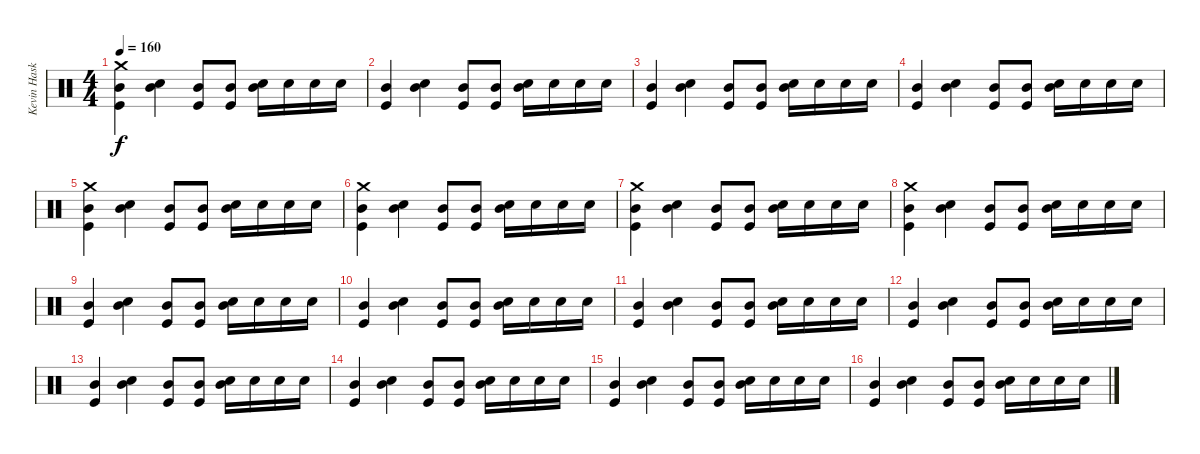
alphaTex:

\track ("Kevin Haskins" "Kevin Hask") {instrument percussion}
\staff {score}
\articulation defaults
\ts (4 4)
\tempo 160
\clef neutral
\ks c
("Crash medium (hit)" "Mid Tom (hit)" "Kick (hit)").4{dy f} ("Snare (hit) 2" "Mid Tom (hit)").4 ("Mid Tom (hit)" "Kick (hit)").8 ("Mid Tom (hit)" "Kick (hit)").8 ("Snare (hit) 2" "Mid Tom (hit)").16 "Snare (hit) 2".16 "Snare (hit) 2".16 "Snare (hit) 2".16 |
("Mid Tom (hit)" "Kick (hit)").4 ("Snare (hit) 2" "Mid Tom (hit)").4 ("Mid Tom (hit)" "Kick (hit)").8 ("Mid Tom (hit)" "Kick (hit)").8 ("Snare (hit) 2" "Mid Tom (hit)").16 "Snare (hit) 2".16 "Snare (hit) 2".16 "Snare (hit) 2".16 |
("Mid Tom (hit)" "Kick (hit)").4 ("Snare (hit) 2" "Mid Tom (hit)").4 ("Mid Tom (hit)" "Kick (hit)").8 ("Mid Tom (hit)" "Kick (hit)").8 ("Snare (hit) 2" "Mid Tom (hit)").16 "Snare (hit) 2".16 "Snare (hit) 2".16 "Snare (hit) 2".16 |
("Mid Tom (hit)" "Kick (hit)").4 ("Snare (hit) 2" "Mid Tom (hit)").4 ("Mid Tom (hit)" "Kick (hit)").8 ("Mid Tom (hit)" "Kick (hit)").8 ("Snare (hit) 2" "Mid Tom (hit)").16 "Snare (hit) 2".16 "Snare (hit) 2".16 "Snare (hit) 2".16 |
("Crash medium (hit)" "Mid Tom (hit)" "Kick (hit)").4 ("Snare (hit) 2" "Mid Tom (hit)").4 ("Mid Tom (hit)" "Kick (hit)").8 ("Mid Tom (hit)" "Kick (hit)").8 ("Snare (hit) 2" "Mid Tom (hit)").16 "Snare (hit) 2".16 "Snare (hit) 2".16 "Snare (hit) 2".16 |
("Crash medium (hit)" "Mid Tom (hit)" "Kick (hit)").4 ("Snare (hit) 2" "Mid Tom (hit)").4 ("Mid Tom (hit)" "Kick (hit)").8 ("Mid Tom (hit)" "Kick (hit)").8 ("Snare (hit) 2" "Mid Tom (hit)").16 "Snare (hit) 2".16 "Snare (hit) 2".16 "Snare (hit) 2".16 |
("Crash medium (hit)" "Mid Tom (hit)" "Kick (hit)").4 ("Snare (hit) 2" "Mid Tom (hit)").4 ("Mid Tom (hit)" "Kick (hit)").8 ("Mid Tom (hit)" "Kick (hit)").8 ("Snare (hit) 2" "Mid Tom (hit)").16 "Snare (hit) 2".16 "Snare (hit) 2".16 "Snare (hit) 2".16 |
("Crash medium (hit)" "Mid Tom (hit)" "Kick (hit)").4 ("Snare (hit) 2" "Mid Tom (hit)").4 ("Mid Tom (hit)" "Kick (hit)").8 ("Mid Tom (hit)" "Kick (hit)").8 ("Snare (hit) 2" "Mid Tom (hit)").16 "Snare (hit) 2".16 "Snare (hit) 2".16 "Snare (hit) 2".16 |
("Mid Tom (hit)" "Kick (hit)").4 ("Snare (hit) 2" "Mid Tom (hit)").4 ("Mid Tom (hit)" "Kick (hit)").8 ("Mid Tom (hit)" "Kick (hit)").8 ("Snare (hit) 2" "Mid Tom (hit)").16 "Snare (hit) 2".16 "Snare (hit) 2".16 "Snare (hit) 2".16 |
("Mid Tom (hit)" "Kick (hit)").4 ("Snare (hit) 2" "Mid Tom (hit)").4 ("Mid Tom (hit)" "Kick (hit)").8 ("Mid Tom (hit)" "Kick (hit)").8 ("Snare (hit) 2" "Mid Tom (hit)").16 "Snare (hit) 2".16 "Snare (hit) 2".16 "Snare (hit) 2".16 |
("Mid Tom (hit)" "Kick (hit)").4 ("Snare (hit) 2" "Mid Tom (hit)").4 ("Mid Tom (hit)" "Kick (hit)").8 ("Mid Tom (hit)" "Kick (hit)").8 ("Snare (hit) 2" "Mid Tom (hit)").16 "Snare (hit) 2".16 "Snare (hit) 2".16 "Snare (hit) 2".16 |
("Mid Tom (hit)" "Kick (hit)").4 ("Snare (hit) 2" "Mid Tom (hit)").4 ("Mid Tom (hit)" "Kick (hit)").8 ("Mid Tom (hit)" "Kick (hit)").8 ("Snare (hit) 2" "Mid Tom (hit)").16 "Snare (hit) 2".16 "Snare (hit) 2".16 "Snare (hit) 2".16 |
("Mid Tom (hit)" "Kick (hit)").4 ("Snare (hit) 2" "Mid Tom (hit)").4 ("Mid Tom (hit)" "Kick (hit)").8 ("Mid Tom (hit)" "Kick (hit)").8 ("Snare (hit) 2" "Mid Tom (hit)").16 "Snare (hit) 2".16 "Snare (hit) 2".16 "Snare (hit) 2".16 |
("Mid Tom (hit)" "Kick (hit)").4 ("Snare (hit) 2" "Mid Tom (hit)").4 ("Mid Tom (hit)" "Kick (hit)").8 ("Mid Tom (hit)" "Kick (hit)").8 ("Snare (hit) 2" "Mid Tom (hit)").16 "Snare (hit) 2".16 "Snare (hit) 2".16 "Snare (hit) 2".16 |
("Mid Tom (hit)" "Kick (hit)").4 ("Snare (hit) 2" "Mid Tom (hit)").4 ("Mid Tom (hit)" "Kick (hit)").8 ("Mid Tom (hit)" "Kick (hit)").8 ("Snare (hit) 2" "Mid Tom (hit)").16 "Snare (hit) 2".16 "Snare (hit) 2".16 "Snare (hit) 2".16 |
("Mid Tom (hit)" "Kick (hit)").4 ("Snare (hit) 2" "Mid Tom (hit)").4 ("Mid Tom (hit)" "Kick (hit)").8 ("Mid Tom (hit)" "Kick (hit)").8 ("Snare (hit) 2" "Mid Tom (hit)").16 "Snare (hit) 2".16 "Snare (hit) 2".16 "Snare (hit) 2".16
